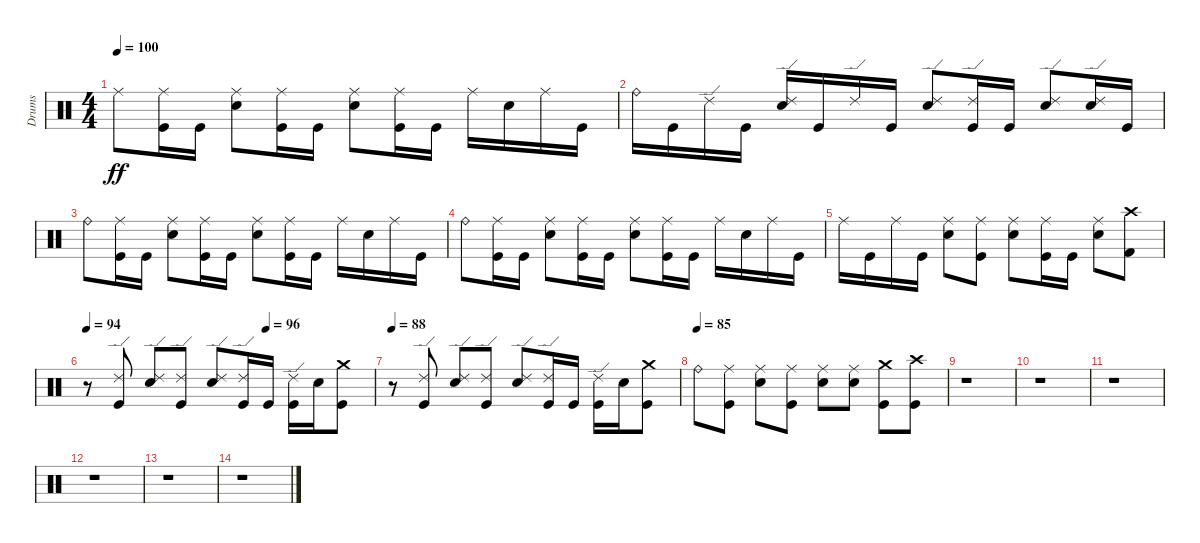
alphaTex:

\track ("Drums" "Drums") {instrument percussion}
\staff {score}
\articulation defaults
\ts (4 4)
\tempo 100
\clef neutral
\ks c "Ride (middle)".8{dy ff}
("Ride (middle)" "Kick (hit)").16 "Kick (hit)".16 ("Ride (middle)" "Electric Snare (hit)").8 ("Ride (middle)" "Kick (hit)").16 "Kick (hit)".16 ("Ride (middle)" "Electric Snare (hit)").8 ("Ride (middle)" "Kick (hit)").16 "Kick (hit)".16 "Ride (middle)".16 "Electric Snare (hit)".16 "Ride (middle)".16 "Kick (hit)".16 |
"Ride (bell)".16 "Kick (hit)".16 "Ride (edge) 2".16 "Kick (hit)".16 ("Ride (edge) 2" "Electric Snare (hit)").16 "Kick (hit)".16 "Ride (edge) 2".16 "Kick (hit)".16 ("Ride (edge) 2" "Electric Snare (hit)").8 ("Ride (edge) 2" "Kick (hit)").16 "Kick (hit)".16 ("Ride (edge) 2" "Electric Snare (hit)").8 ("Ride (edge) 2" "Electric Snare (hit)").16 "Kick (hit)".16 |
"Ride (bell)".8 ("Ride (middle)" "Kick (hit)").16 "Kick (hit)".16 ("Ride (middle)" "Electric Snare (hit)").8 ("Ride (middle)" "Kick (hit)").16 "Kick (hit)".16 ("Ride (middle)" "Electric Snare (hit)").8 ("Ride (middle)" "Kick (hit)").16 "Kick (hit)".16 "Ride (middle)".16 "Electric Snare (hit)".16 "Ride (middle)".16 "Kick (hit)".16 |
"Ride (bell)".8 ("Ride (middle)" "Kick (hit)").16 "Kick (hit)".16 ("Ride (middle)" "Electric Snare (hit)").8 ("Ride (middle)" "Kick (hit)").16 "Kick (hit)".16 ("Ride (middle)" "Electric Snare (hit)").8 ("Ride (middle)" "Kick (hit)").16 "Kick (hit)".16 "Ride (middle)".16 "Electric Snare (hit)".16 "Ride (middle)".16 "Kick (hit)".16 |
"Ride (middle)".16 "Kick (hit)".16 "Ride (middle)".16 "Kick (hit)".16 ("Ride (middle)" "Electric Snare (hit)").8 ("Ride (middle)" "Kick (hit)").8 ("Ride (middle)" "Electric Snare (hit)").8 ("Ride (middle)" "Kick (hit)").16 "Kick (hit)".16 ("Ride (middle)" "Electric Snare (hit)").8 ("Crash high (hit)" "Kick (hit) 2").8 |
\tempo 94
\tempo (96 0.625)
r.8 ("Ride (edge) 2" "Kick (hit)").8 ("Ride (edge) 2" "Electric Snare (hit)").8 ("Ride (edge) 2" "Kick (hit)").8 ("Ride (edge) 2" "Electric Snare (hit)").8 ("Ride (edge) 2" "Kick (hit)").16 "Kick (hit)".16 ("Ride (edge) 2" "Kick (hit)").16 "Electric Snare (hit)".16 ("Crash medium (hit)" "Kick (hit)").8 |
\tempo 88
r.8 ("Ride (edge) 2" "Kick (hit)").8 ("Ride (edge) 2" "Electric Snare (hit)").8 ("Ride (edge) 2" "Kick (hit)").8 ("Ride (edge) 2" "Electric Snare (hit)").8 ("Ride (edge) 2" "Kick (hit)").16 "Kick (hit)".16 ("Ride (edge) 2" "Kick (hit)").16 "Electric Snare (hit)".16 ("Crash medium (hit)" "Kick (hit)").8 |
\tempo (85)
"Ride (bell)".8 ("Ride (middle)" "Kick (hit)").8 ("Ride (middle)" "Electric Snare (hit)").8 ("Ride (middle)" "Kick (hit)").8 ("Ride (middle)" "Electric Snare (hit)").8 ("Ride (middle)" "Electric Snare (hit)").8 ("Crash medium (hit)" "Kick (hit)").8 ("Crash high (hit)" "Kick (hit)").8 |
r.1 |
r.1 |
r.1 |
r.1 |
r.1 |
r.1
